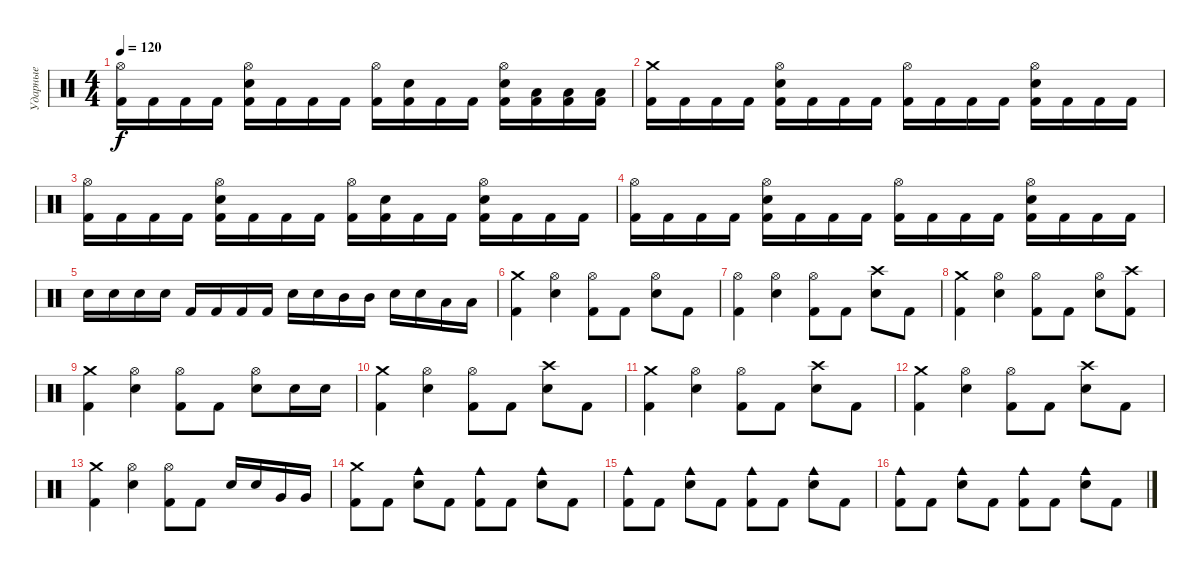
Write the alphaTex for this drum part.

\track ("Ударные" "Ударные") {instrument percussion}
\staff {score}
\articulation defaults
\ts (4 4)
\tempo 120
\clef neutral
\ks c
("Hi-Hat (open)" "Kick (hit) 2").16{dy f} "Kick (hit) 2".16 "Kick (hit) 2".16 "Kick (hit) 2".16 ("Hi-Hat (open)" "Electric Snare (hit)" "Kick (hit) 2").16 "Kick (hit) 2".16 "Kick (hit) 2".16 "Kick (hit) 2".16 ("Hi-Hat (open)" "Kick (hit) 2").16 ("Electric Snare (hit)" "Kick (hit) 2").16 "Kick (hit) 2".16 "Kick (hit) 2".16 ("Hi-Hat (open)" "Electric Snare (hit)" "Kick (hit) 2").16 ("Low Tom (hit)" "Kick (hit) 2").16 ("Low Tom (hit)" "Kick (hit) 2").16 ("Low Tom (hit)" "Kick (hit) 2").16 |
("Crash medium (hit)" "Kick (hit) 2").16 "Kick (hit) 2".16 "Kick (hit) 2".16 "Kick (hit) 2".16 ("Hi-Hat (open)" "Electric Snare (hit)" "Kick (hit) 2").16 "Kick (hit) 2".16 "Kick (hit) 2".16 "Kick (hit) 2".16 ("Hi-Hat (open)" "Kick (hit) 2").16 "Kick (hit) 2".16 "Kick (hit) 2".16 "Kick (hit) 2".16 ("Hi-Hat (open)" "Electric Snare (hit)" "Kick (hit) 2").16 "Kick (hit) 2".16 "Kick (hit) 2".16 "Kick (hit) 2".16 |
("Hi-Hat (open)" "Kick (hit) 2").16 "Kick (hit) 2".16 "Kick (hit) 2".16 "Kick (hit) 2".16 ("Hi-Hat (open)" "Electric Snare (hit)" "Kick (hit) 2").16 "Kick (hit) 2".16 "Kick (hit) 2".16 "Kick (hit) 2".16 ("Hi-Hat (open)" "Kick (hit) 2").16 ("Electric Snare (hit)" "Kick (hit) 2").16 "Kick (hit) 2".16 "Kick (hit) 2".16 ("Hi-Hat (open)" "Electric Snare (hit)" "Kick (hit) 2").16 "Kick (hit) 2".16 "Kick (hit) 2".16 "Kick (hit) 2".16 |
("Hi-Hat (open)" "Kick (hit) 2").16 "Kick (hit) 2".16 "Kick (hit) 2".16 "Kick (hit) 2".16 ("Hi-Hat (open)" "Electric Snare (hit)" "Kick (hit) 2").16 "Kick (hit) 2".16 "Kick (hit) 2".16 "Kick (hit) 2".16 ("Hi-Hat (open)" "Kick (hit) 2").16 "Kick (hit) 2".16 "Kick (hit) 2".16 "Kick (hit) 2".16 ("Hi-Hat (open)" "Electric Snare (hit)" "Kick (hit) 2").16 "Kick (hit) 2".16 "Kick (hit) 2".16 "Kick (hit) 2".16 |
"Electric Snare (hit)".16 "Electric Snare (hit)".16 "Electric Snare (hit)".16 "Electric Snare (hit)".16 "Kick (hit) 2".16 "Kick (hit) 2".16 "Kick (hit) 2".16 "Kick (hit) 2".16 "Electric Snare (hit)".16 "Electric Snare (hit)".16 "Mid Tom (hit)".16 "Mid Tom (hit)".16 "Electric Snare (hit)".16 "Electric Snare (hit)".16 "Low Tom (hit)".16 "Low Tom (hit)".16 |
("Crash medium (hit)" "Kick (hit) 2").4 ("Hi-Hat (open)" "Electric Snare (hit)").4 ("Hi-Hat (open)" "Kick (hit) 2").8 "Kick (hit) 2".8 ("Hi-Hat (open)" "Electric Snare (hit)").8 "Kick (hit) 2".8 |
("Hi-Hat (open)" "Kick (hit) 2").4 ("Hi-Hat (open)" "Electric Snare (hit)").4 ("Hi-Hat (open)" "Kick (hit) 2").8 "Kick (hit) 2".8 ("Crash high (hit)" "Electric Snare (hit)").8 "Kick (hit) 2".8 |
("Crash medium (hit)" "Kick (hit) 2").4 ("Hi-Hat (open)" "Electric Snare (hit)").4 ("Hi-Hat (open)" "Kick (hit) 2").8 "Kick (hit) 2".8 ("Hi-Hat (open)" "Electric Snare (hit)").8 ("Crash high (hit)" "Kick (hit) 2").8 |
("Crash medium (hit)" "Kick (hit) 2").4 ("Hi-Hat (open)" "Electric Snare (hit)").4 ("Hi-Hat (open)" "Kick (hit) 2").8 "Kick (hit) 2".8 ("Hi-Hat (open)" "Electric Snare (hit)").8 "Electric Snare (hit)".16 "Electric Snare (hit)".16 |
("Crash medium (hit)" "Kick (hit) 2").4 ("Hi-Hat (open)" "Electric Snare (hit)").4 ("Hi-Hat (open)" "Kick (hit) 2").8 "Kick (hit) 2".8 ("Crash high (hit)" "Electric Snare (hit)").8 "Kick (hit) 2".8 |
("Crash medium (hit)" "Kick (hit) 2").4 ("Hi-Hat (open)" "Electric Snare (hit)").4 ("Hi-Hat (open)" "Kick (hit) 2").8 "Kick (hit) 2".8 ("Crash high (hit)" "Electric Snare (hit)").8 "Kick (hit) 2".8 |
("Crash medium (hit)" "Kick (hit) 2").4 ("Hi-Hat (open)" "Electric Snare (hit)").4 ("Hi-Hat (open)" "Kick (hit) 2").8 "Kick (hit) 2".8 ("Crash high (hit)" "Electric Snare (hit)").8 "Kick (hit) 2".8 |
("Crash medium (hit)" "Kick (hit) 2").4 ("Hi-Hat (open)" "Electric Snare (hit)").4 ("Hi-Hat (open)" "Kick (hit) 2").8 "Kick (hit) 2".8 "Electric Snare (hit)".16 "Electric Snare (hit)".16 "Very Low Tom (hit)".16 "Very Low Tom (hit)".16 |
("Crash medium (hit)" "Kick (hit) 2").8 "Kick (hit) 2".8 ("Cowbell medium (hit)" "Electric Snare (hit)").8 "Kick (hit) 2".8 ("Cowbell medium (hit)" "Kick (hit) 2").8 "Kick (hit) 2".8 ("Cowbell medium (hit)" "Electric Snare (hit)").8 "Kick (hit) 2".8 |
("Cowbell medium (hit)" "Kick (hit) 2").8 "Kick (hit) 2".8 ("Cowbell medium (hit)" "Electric Snare (hit)").8 "Kick (hit) 2".8 ("Cowbell medium (hit)" "Kick (hit) 2").8 "Kick (hit) 2".8 ("Cowbell medium (hit)" "Electric Snare (hit)").8 "Kick (hit) 2".8 |
("Cowbell medium (hit)" "Kick (hit) 2").8 "Kick (hit) 2".8 ("Cowbell medium (hit)" "Electric Snare (hit)").8 "Kick (hit) 2".8 ("Cowbell medium (hit)" "Kick (hit) 2").8 "Kick (hit) 2".8 ("Cowbell medium (hit)" "Electric Snare (hit)").8 "Kick (hit) 2".8
